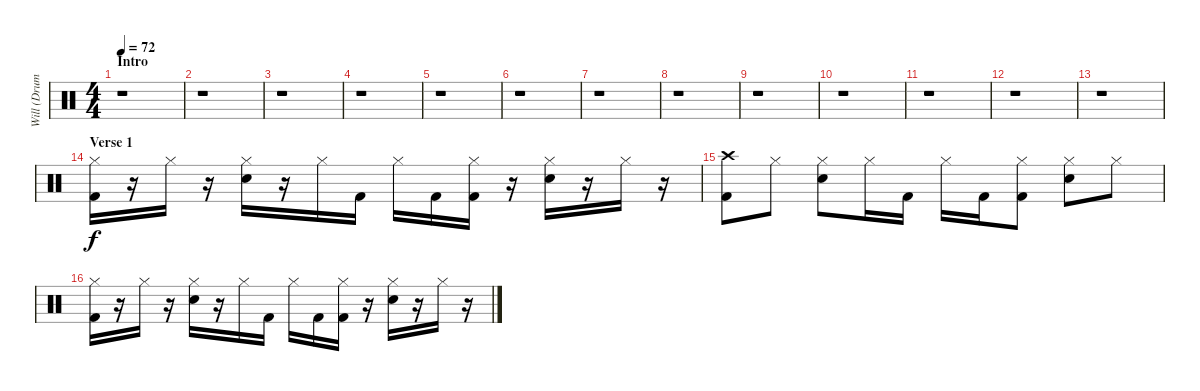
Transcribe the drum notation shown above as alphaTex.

\track ("Will (Drums)" "Will (Drum") {instrument percussion}
\staff {score}
\articulation defaults
\ts (4 4)
\section ("" "Intro")
\tempo 72
\clef neutral
\ks c
r.1{dy f} |
r.1 |
r.1 |
r.1 |
r.1 |
r.1 |
r.1 |
r.1 |
r.1 |
r.1 |
r.1 |
r.1 |
r.1 |
\section ("" "Verse 1")
("Hi-Hat (closed)" "Kick (hit) 2").16 r.16 "Hi-Hat (closed)".16 r.16 ("Hi-Hat (closed)" "Snare (hit) 2").16 r.16 "Hi-Hat (closed)".16 "Kick (hit) 2".16 "Hi-Hat (closed)".16 "Kick (hit) 2".16 ("Hi-Hat (closed)" "Kick (hit) 2").16 r.16 ("Hi-Hat (closed)" "Snare (hit) 2").16 r.16 "Hi-Hat (closed)".16 r.16 |
("Crash high (hit)" "Kick (hit) 2").8 "Hi-Hat (closed)".8 ("Hi-Hat (closed)" "Snare (hit) 2").8 "Hi-Hat (closed)".16 "Kick (hit) 2".16 "Hi-Hat (closed)".16 "Kick (hit) 2".16 ("Hi-Hat (closed)" "Kick (hit) 2").8 ("Hi-Hat (closed)" "Snare (hit) 2").8 "Hi-Hat (closed)".8 |
("Hi-Hat (closed)" "Kick (hit) 2").16 r.16 "Hi-Hat (closed)".16 r.16 ("Hi-Hat (closed)" "Snare (hit) 2").16 r.16 "Hi-Hat (closed)".16 "Kick (hit) 2".16 "Hi-Hat (closed)".16 "Kick (hit) 2".16 ("Hi-Hat (closed)" "Kick (hit) 2").16 r.16 ("Hi-Hat (closed)" "Snare (hit) 2").16 r.16 "Hi-Hat (closed)".16 r.16
